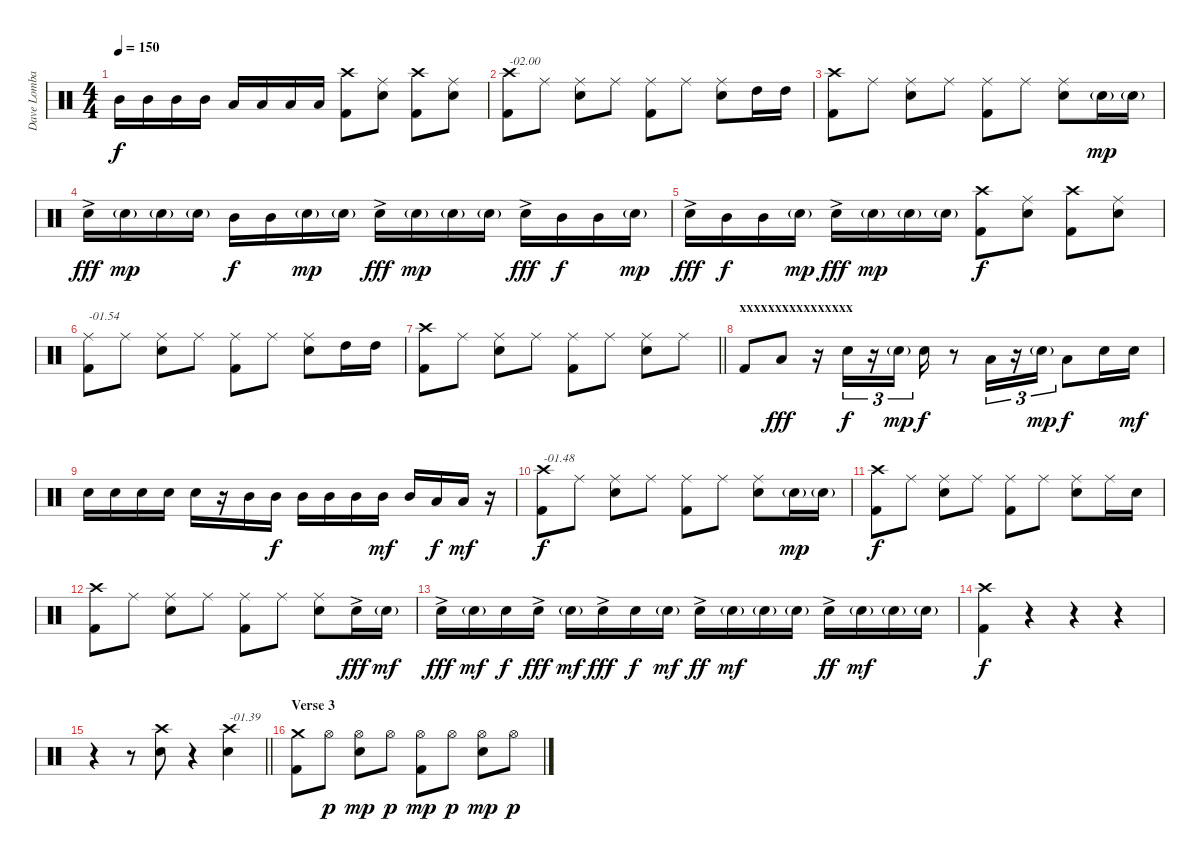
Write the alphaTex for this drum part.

\track ("Dave Lombardo (Drums)" "Dave Lomba") {instrument percussion}
\staff {score}
\articulation defaults
\ts (4 4)
\tempo 150
\clef neutral
\ks c "Mid Tom (hit)".16{dy f} "Mid Tom (hit)".16 "Mid Tom (hit)".16 "Mid Tom (hit)".16 "Low Tom (hit)".16 "Low Tom (hit)".16 "Low Tom (hit)".16 "Low Tom (hit)".16
("Crash high (hit)" "Kick (hit) 2").8 ("Ride (middle)" "Electric Snare (hit)").8 ("Crash high (hit)" "Kick (hit) 2").8 ("Ride (middle)" "Electric Snare (hit)").8 |
("Crash high (hit)" "Kick (hit) 2").8{txt "-02.00"} "Ride (middle)".8 ("Ride (middle)" "Electric Snare (hit)").8 "Ride (middle)".8 ("Ride (middle)" "Kick (hit) 2").8 "Ride (middle)".8 ("Ride (middle)" "Electric Snare (hit)").8 "High Tom (hit)".16 "High Tom (hit)".16 |
("Crash high (hit)" "Kick (hit) 2").8 "Ride (middle)".8 ("Ride (middle)" "Electric Snare (hit)").8 "Ride (middle)".8 ("Ride (middle)" "Kick (hit) 2").8 "Ride (middle)".8 ("Ride (middle)" "Electric Snare (hit)").8 "Electric Snare (hit)"{g}.16{dy mp} "Electric Snare (hit)"{g}.16 |
"Electric Snare (hit)"{ac}.16{dy fff} "Electric Snare (hit)"{g}.16{dy mp} "Electric Snare (hit)"{g}.16 "Electric Snare (hit)"{g}.16 "Mid Tom (hit)".16{dy f} "Mid Tom (hit)".16 "Electric Snare (hit)"{g}.16{dy mp} "Electric Snare (hit)"{g}.16 "Electric Snare (hit)"{ac}.16{dy fff} "Electric Snare (hit)"{g}.16{dy mp} "Electric Snare (hit)"{g}.16 "Electric Snare (hit)"{g}.16 "Electric Snare (hit)"{ac}.16{dy fff} "Mid Tom (hit)".16{dy f} "Mid Tom (hit)".16 "Electric Snare (hit)"{g}.16{dy mp} |
"Electric Snare (hit)"{ac}.16{dy fff} "Mid Tom (hit)".16{dy f} "Mid Tom (hit)".16 "Electric Snare (hit)"{g}.16{dy mp} "Electric Snare (hit)"{ac}.16{dy fff} "Electric Snare (hit)"{g}.16{dy mp} "Electric Snare (hit)"{g}.16 "Electric Snare (hit)"{g}.16 ("Crash high (hit)" "Kick (hit) 2").8{dy f} ("Ride (middle)" "Electric Snare (hit)").8 ("Crash high (hit)" "Kick (hit) 2").8 ("Ride (middle)" "Electric Snare (hit)").8 |
("Ride (middle)" "Kick (hit) 2").8{txt "-01.54"} "Ride (middle)".8 ("Ride (middle)" "Electric Snare (hit)").8 "Ride (middle)".8 ("Ride (middle)" "Kick (hit) 2").8 "Ride (middle)".8 ("Ride (middle)" "Electric Snare (hit)").8 "High Tom (hit)".16 "High Tom (hit)".16 |
\barLineRight lightlight
("Crash high (hit)" "Kick (hit) 2").8 "Ride (middle)".8 ("Ride (middle)" "Electric Snare (hit)").8 "Ride (middle)".8 ("Ride (middle)" "Kick (hit) 2").8 "Ride (middle)".8 ("Ride (middle)" "Electric Snare (hit)").8 "Ride (middle)".8 |
\section ("" "xxxxxxxxxxxxxxxx")
"Kick (hit) 2".8 "Low Tom (hit)".8{dy fff} r.16 "Electric Snare (hit)".16{tu (3 2) dy f} r.16{tu (3 2)} "Electric Snare (hit)"{g}.16{tu (3 2) dy mp} "Electric Snare (hit)".16{dy f} r.8 "Low Tom (hit)".16{tu (3 2)} r.16{tu (3 2)} "Electric Snare (hit)"{g}.16{tu (3 2) dy mp} "Low Tom (hit)".8{dy f} "Electric Snare (hit)".16 "Electric Snare (hit)".16{dy mf} |
"Electric Snare (hit)".16 "Electric Snare (hit)".16 "Electric Snare (hit)".16 "Electric Snare (hit)".16 "Electric Snare (hit)".16 r.16 "Mid Tom (hit)".16 "Mid Tom (hit)".16{dy f} "Mid Tom (hit)".16 "Mid Tom (hit)".16 "Mid Tom (hit)".16 "Mid Tom (hit)".16{dy mf} "Mid Tom (hit)".16 "Low Tom (hit)".16{dy f} "Low Tom (hit)".16{dy mf} r.16 |
("Crash high (hit)" "Kick (hit) 2").8{txt "-01.48" dy f} "Ride (middle)".8 ("Ride (middle)" "Electric Snare (hit)").8 "Ride (middle)".8 ("Ride (middle)" "Kick (hit) 2").8 "Ride (middle)".8 ("Ride (middle)" "Electric Snare (hit)").8 "Electric Snare (hit)"{g}.16{dy mp} "Electric Snare (hit)"{g}.16 |
("Crash high (hit)" "Kick (hit) 2").8{dy f} "Ride (middle)".8 ("Ride (middle)" "Electric Snare (hit)").8 "Ride (middle)".8 ("Ride (middle)" "Kick (hit) 2").8 "Ride (middle)".8 ("Ride (middle)" "Electric Snare (hit)").8 "Ride (middle)".16 "Electric Snare (hit)".16 |
("Crash high (hit)" "Kick (hit) 2").8 "Ride (middle)".8 ("Ride (middle)" "Electric Snare (hit)").8 "Ride (middle)".8 ("Ride (middle)" "Kick (hit) 2").8 "Ride (middle)".8 ("Ride (middle)" "Electric Snare (hit)").8 "Electric Snare (hit)"{ac}.16{dy fff} "Electric Snare (hit)"{g}.16{dy mf} |
"Electric Snare (hit)"{ac}.16{dy fff} "Electric Snare (hit)"{g}.16{dy mf} "Electric Snare (hit)".16{dy f} "Electric Snare (hit)"{ac}.16{dy fff} "Electric Snare (hit)"{g}.16{dy mf} "Electric Snare (hit)"{ac}.16{dy fff} "Electric Snare (hit)".16{dy f} "Electric Snare (hit)"{g}.16{dy mf} "Electric Snare (hit)"{ac}.16{dy ff} "Electric Snare (hit)"{g}.16{dy mf} "Electric Snare (hit)"{g}.16 "Electric Snare (hit)"{g}.16 "Electric Snare (hit)"{ac}.16{dy ff} "Electric Snare (hit)"{g}.16{dy mf} "Electric Snare (hit)"{g}.16 "Electric Snare (hit)"{g}.16 |
("Crash high (hit)" "Kick (hit) 2").4{dy f} r.4 r.4 r.4 |
\barLineRight lightlight
r.4 r.8 ("Crash high (hit)" "Electric Snare (hit)").8 r.4 ("Crash high (hit)" "Electric Snare (hit)").4{txt "-01.39"} |
\section ("" "Verse 3")
("Crash medium (hit)" "Kick (hit) 2").8 "Hi-Hat (open)".8{dy p} ("Hi-Hat (open)" "Electric Snare (hit)").8{dy mp} "Hi-Hat (open)".8{dy p} ("Hi-Hat (open)" "Kick (hit) 2").8{dy mp} "Hi-Hat (open)".8{dy p} ("Hi-Hat (open)" "Electric Snare (hit)").8{dy mp} "Hi-Hat (open)".8{dy p}
